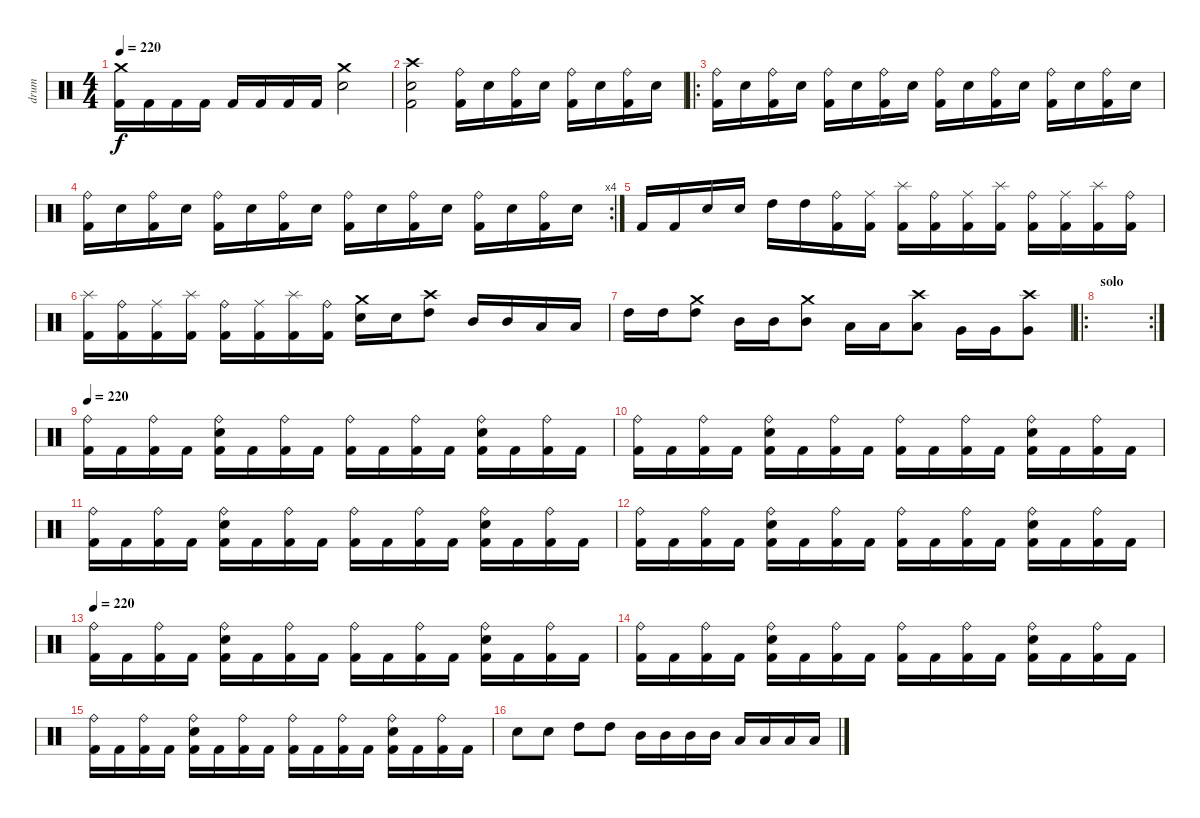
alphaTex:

\track ("drum" "drum") {instrument percussion}
\staff {score}
\articulation defaults
\ts (4 4)
\tempo 220
\clef neutral
\ks c
("Crash medium (hit)" "Kick (hit) 2").16{dy f} "Kick (hit) 2".16 "Kick (hit) 2".16 "Kick (hit) 2".16 "Kick (hit) 2".16 "Kick (hit) 2".16 "Kick (hit) 2".16 "Kick (hit) 2".16 ("Crash medium (hit)" "Electric Snare (hit)").2 |
("Crash high (hit)" "Electric Snare (hit)" "Kick (hit) 2").2 ("Ride (bell)" "Kick (hit) 2").16 "Electric Snare (hit)".16 ("Ride (bell)" "Kick (hit) 2").16 "Electric Snare (hit)".16 ("Ride (bell)" "Kick (hit) 2").16 "Electric Snare (hit)".16 ("Ride (bell)" "Kick (hit) 2").16 "Electric Snare (hit)".16 |
\ro
("Ride (bell)" "Kick (hit) 2").16 "Electric Snare (hit)".16 ("Ride (bell)" "Kick (hit) 2").16 "Electric Snare (hit)".16 ("Ride (bell)" "Kick (hit) 2").16 "Electric Snare (hit)".16 ("Ride (bell)" "Kick (hit) 2").16 "Electric Snare (hit)".16 ("Ride (bell)" "Kick (hit) 2").16 "Electric Snare (hit)".16 ("Ride (bell)" "Kick (hit) 2").16 "Electric Snare (hit)".16 ("Ride (bell)" "Kick (hit) 2").16 "Electric Snare (hit)".16 ("Ride (bell)" "Kick (hit) 2").16 "Electric Snare (hit)".16 |
\rc 4
("Ride (bell)" "Kick (hit) 2").16 "Electric Snare (hit)".16 ("Ride (bell)" "Kick (hit) 2").16 "Electric Snare (hit)".16 ("Ride (bell)" "Kick (hit) 2").16 "Electric Snare (hit)".16 ("Ride (bell)" "Kick (hit) 2").16 "Electric Snare (hit)".16 ("Ride (bell)" "Kick (hit) 2").16 "Electric Snare (hit)".16 ("Ride (bell)" "Kick (hit) 2").16 "Electric Snare (hit)".16 ("Ride (bell)" "Kick (hit) 2").16 "Electric Snare (hit)".16 ("Ride (bell)" "Kick (hit) 2").16 "Electric Snare (hit)".16 |
"Kick (hit) 2".16 "Kick (hit) 2".16 "Electric Snare (hit)".16 "Electric Snare (hit)".16 "High Tom (hit)".16 "High Tom (hit)".16 ("Ride (bell)" "Kick (hit) 2").16 ("Ride (middle)" "Kick (hit) 2").16 ("Splash (hit)" "Kick (hit) 2").16 ("Ride (bell)" "Kick (hit) 2").16 ("Ride (middle)" "Kick (hit) 2").16 ("Splash (hit)" "Kick (hit) 2").16 ("Ride (bell)" "Kick (hit) 2").16 ("Ride (middle)" "Kick (hit) 2").16 ("Splash (hit)" "Kick (hit) 2").16 ("Ride (bell)" "Kick (hit) 2").16 |
("Splash (hit)" "Kick (hit) 2").16 ("Ride (bell)" "Kick (hit) 2").16 ("Ride (middle)" "Kick (hit) 2").16 ("Splash (hit)" "Kick (hit) 2").16 ("Ride (bell)" "Kick (hit) 2").16 ("Ride (middle)" "Kick (hit) 2").16 ("Splash (hit)" "Kick (hit) 2").16 ("Ride (bell)" "Kick (hit) 2").16 ("Crash medium (hit)" "Electric Snare (hit)").16 "Electric Snare (hit)".16 ("Crash high (hit)" "High Tom (hit)").8 "Mid Tom (hit)".16 "Mid Tom (hit)".16 "Low Tom (hit)".16 "Low Tom (hit)".16 |
"High Tom (hit)".16 "High Tom (hit)".16 ("Crash medium (hit)" "High Tom (hit)").8 "Mid Tom (hit)".16 "Mid Tom (hit)".16 ("Crash medium (hit)" "Mid Tom (hit)").8 "Low Tom (hit)".16 "Low Tom (hit)".16 ("Crash high (hit)" "Low Tom (hit)").8 "Very Low Tom (hit)".16 "Very Low Tom (hit)".16 ("Crash high (hit)" "Very Low Tom (hit)").8 |
\ro
\rc 2
\section ("" "solo")
|
\tempo 220
("Ride (bell)" "Kick (hit) 2").16 "Kick (hit) 2".16 ("Ride (bell)" "Kick (hit) 2").16 "Kick (hit) 2".16 ("Ride (bell)" "Electric Snare (hit)" "Kick (hit) 2").16 "Kick (hit) 2".16 ("Ride (bell)" "Kick (hit) 2").16 "Kick (hit) 2".16 ("Ride (bell)" "Kick (hit) 2").16 "Kick (hit) 2".16 ("Ride (bell)" "Kick (hit) 2").16 "Kick (hit) 2".16 ("Ride (bell)" "Electric Snare (hit)" "Kick (hit) 2").16 "Kick (hit) 2".16 ("Ride (bell)" "Kick (hit) 2").16 "Kick (hit) 2".16 |
("Ride (bell)" "Kick (hit) 2").16 "Kick (hit) 2".16 ("Ride (bell)" "Kick (hit) 2").16 "Kick (hit) 2".16 ("Ride (bell)" "Electric Snare (hit)" "Kick (hit) 2").16 "Kick (hit) 2".16 ("Ride (bell)" "Kick (hit) 2").16 "Kick (hit) 2".16 ("Ride (bell)" "Kick (hit) 2").16 "Kick (hit) 2".16 ("Ride (bell)" "Kick (hit) 2").16 "Kick (hit) 2".16 ("Ride (bell)" "Electric Snare (hit)" "Kick (hit) 2").16 "Kick (hit) 2".16 ("Ride (bell)" "Kick (hit) 2").16 "Kick (hit) 2".16 |
("Ride (bell)" "Kick (hit) 2").16 "Kick (hit) 2".16 ("Ride (bell)" "Kick (hit) 2").16 "Kick (hit) 2".16 ("Ride (bell)" "Electric Snare (hit)" "Kick (hit) 2").16 "Kick (hit) 2".16 ("Ride (bell)" "Kick (hit) 2").16 "Kick (hit) 2".16 ("Ride (bell)" "Kick (hit) 2").16 "Kick (hit) 2".16 ("Ride (bell)" "Kick (hit) 2").16 "Kick (hit) 2".16 ("Ride (bell)" "Electric Snare (hit)" "Kick (hit) 2").16 "Kick (hit) 2".16 ("Ride (bell)" "Kick (hit) 2").16 "Kick (hit) 2".16 |
("Ride (bell)" "Kick (hit) 2").16 "Kick (hit) 2".16 ("Ride (bell)" "Kick (hit) 2").16 "Kick (hit) 2".16 ("Ride (bell)" "Electric Snare (hit)" "Kick (hit) 2").16 "Kick (hit) 2".16 ("Ride (bell)" "Kick (hit) 2").16 "Kick (hit) 2".16 ("Ride (bell)" "Kick (hit) 2").16 "Kick (hit) 2".16 ("Ride (bell)" "Kick (hit) 2").16 "Kick (hit) 2".16 ("Ride (bell)" "Electric Snare (hit)" "Kick (hit) 2").16 "Kick (hit) 2".16 ("Ride (bell)" "Kick (hit) 2").16 "Kick (hit) 2".16 |
\tempo 220
("Ride (bell)" "Kick (hit) 2").16 "Kick (hit) 2".16 ("Ride (bell)" "Kick (hit) 2").16 "Kick (hit) 2".16 ("Ride (bell)" "Electric Snare (hit)" "Kick (hit) 2").16 "Kick (hit) 2".16 ("Ride (bell)" "Kick (hit) 2").16 "Kick (hit) 2".16 ("Ride (bell)" "Kick (hit) 2").16 "Kick (hit) 2".16 ("Ride (bell)" "Kick (hit) 2").16 "Kick (hit) 2".16 ("Ride (bell)" "Electric Snare (hit)" "Kick (hit) 2").16 "Kick (hit) 2".16 ("Ride (bell)" "Kick (hit) 2").16 "Kick (hit) 2".16 |
("Ride (bell)" "Kick (hit) 2").16 "Kick (hit) 2".16 ("Ride (bell)" "Kick (hit) 2").16 "Kick (hit) 2".16 ("Ride (bell)" "Electric Snare (hit)" "Kick (hit) 2").16 "Kick (hit) 2".16 ("Ride (bell)" "Kick (hit) 2").16 "Kick (hit) 2".16 ("Ride (bell)" "Kick (hit) 2").16 "Kick (hit) 2".16 ("Ride (bell)" "Kick (hit) 2").16 "Kick (hit) 2".16 ("Ride (bell)" "Electric Snare (hit)" "Kick (hit) 2").16 "Kick (hit) 2".16 ("Ride (bell)" "Kick (hit) 2").16 "Kick (hit) 2".16 |
("Ride (bell)" "Kick (hit) 2").16 "Kick (hit) 2".16 ("Ride (bell)" "Kick (hit) 2").16 "Kick (hit) 2".16 ("Ride (bell)" "Electric Snare (hit)" "Kick (hit) 2").16 "Kick (hit) 2".16 ("Ride (bell)" "Kick (hit) 2").16 "Kick (hit) 2".16 ("Ride (bell)" "Kick (hit) 2").16 "Kick (hit) 2".16 ("Ride (bell)" "Kick (hit) 2").16 "Kick (hit) 2".16 ("Ride (bell)" "Electric Snare (hit)" "Kick (hit) 2").16 "Kick (hit) 2".16 ("Ride (bell)" "Kick (hit) 2").16 "Kick (hit) 2".16 |
"Electric Snare (hit)".8 "Electric Snare (hit)".8 "High Tom (hit)".8 "High Tom (hit)".8 "Mid Tom (hit)".16 "Mid Tom (hit)".16 "Mid Tom (hit)".16 "Mid Tom (hit)".16 "Low Tom (hit)".16 "Low Tom (hit)".16 "Low Tom (hit)".16 "Low Tom (hit)".16
